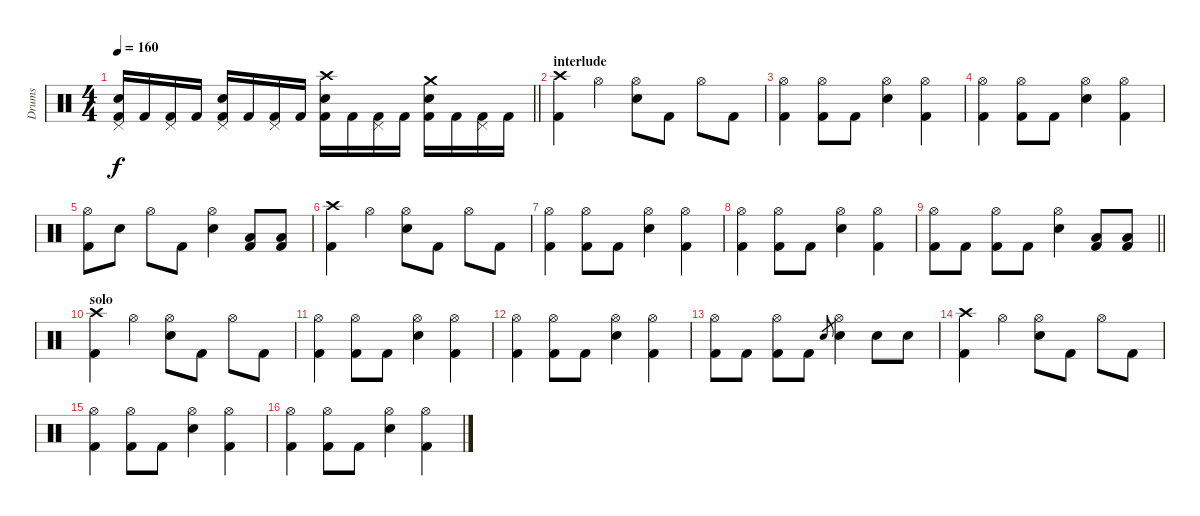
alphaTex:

\track ("Drums" "Drums") {instrument percussion}
\staff {score}
\articulation defaults
\ts (4 4)
\tempo 160
\clef neutral
\barLineRight lightlight
\ks c
("Pedal Hi-Hat (hit)" "Snare (hit) 2" "Kick (hit) 2").16{dy f} "Kick (hit) 2".16 ("Pedal Hi-Hat (hit)" "Kick (hit) 2").16 "Kick (hit) 2".16 ("Pedal Hi-Hat (hit)" "Snare (hit) 2" "Kick (hit) 2").16 "Kick (hit) 2".16 ("Pedal Hi-Hat (hit)" "Kick (hit) 2").16 "Kick (hit) 2".16 ("Crash high (hit)" "Snare (hit) 2" "Kick (hit) 2").16 "Kick (hit) 2".16 ("Pedal Hi-Hat (hit)" "Kick (hit) 2").16 "Kick (hit) 2".16 ("Crash medium (hit)" "Snare (hit) 2" "Kick (hit) 2").16 "Kick (hit) 2".16 ("Pedal Hi-Hat (hit)" "Kick (hit) 2").16 "Kick (hit) 2".16 |
\section ("" "interlude")
("Crash high (hit)" "Kick (hit) 2").4 "Hi-Hat (open)".4 ("Hi-Hat (open)" "Snare (hit) 2").8 "Kick (hit) 2".8 "Hi-Hat (open)".8 "Kick (hit) 2".8 |
("Hi-Hat (open)" "Kick (hit) 2").4 ("Hi-Hat (open)" "Kick (hit) 2").8 "Kick (hit) 2".8 ("Hi-Hat (open)" "Snare (hit) 2").4 ("Hi-Hat (open)" "Kick (hit) 2").4 |
("Hi-Hat (open)" "Kick (hit) 2").4 ("Hi-Hat (open)" "Kick (hit) 2").8 "Kick (hit) 2".8 ("Hi-Hat (open)" "Snare (hit) 2").4 ("Hi-Hat (open)" "Kick (hit) 2").4 |
("Hi-Hat (open)" "Kick (hit) 2").8 "Snare (hit) 2".8 "Hi-Hat (open)".8 "Kick (hit) 2".8 ("Hi-Hat (open)" "Snare (hit) 2").4 ("Low Tom (hit)" "Kick (hit) 2").8 ("Low Tom (hit)" "Kick (hit) 2").8 |
("Crash high (hit)" "Kick (hit) 2").4 "Hi-Hat (open)".4 ("Hi-Hat (open)" "Snare (hit) 2").8 "Kick (hit) 2".8 "Hi-Hat (open)".8 "Kick (hit) 2".8 |
("Hi-Hat (open)" "Kick (hit) 2").4 ("Hi-Hat (open)" "Kick (hit) 2").8 "Kick (hit) 2".8 ("Hi-Hat (open)" "Snare (hit) 2").4 ("Hi-Hat (open)" "Kick (hit) 2").4 |
("Hi-Hat (open)" "Kick (hit) 2").4 ("Hi-Hat (open)" "Kick (hit) 2").8 "Kick (hit) 2".8 ("Hi-Hat (open)" "Snare (hit) 2").4 ("Hi-Hat (open)" "Kick (hit) 2").4 |
\barLineRight lightlight
("Hi-Hat (open)" "Kick (hit) 2").8 "Kick (hit) 2".8 ("Hi-Hat (open)" "Kick (hit) 2").8 "Kick (hit) 2".8 ("Hi-Hat (open)" "Snare (hit) 2").4 ("Low Tom (hit)" "Kick (hit) 2").8 ("Low Tom (hit)" "Kick (hit) 2").8 |
\section ("" "solo")
("Crash high (hit)" "Kick (hit) 2").4 "Hi-Hat (open)".4 ("Hi-Hat (open)" "Snare (hit) 2").8 "Kick (hit) 2".8 "Hi-Hat (open)".8 "Kick (hit) 2".8 |
("Hi-Hat (open)" "Kick (hit) 2").4 ("Hi-Hat (open)" "Kick (hit) 2").8 "Kick (hit) 2".8 ("Hi-Hat (open)" "Snare (hit) 2").4 ("Hi-Hat (open)" "Kick (hit) 2").4 |
("Hi-Hat (open)" "Kick (hit) 2").4 ("Hi-Hat (open)" "Kick (hit) 2").8 "Kick (hit) 2".8 ("Hi-Hat (open)" "Snare (hit) 2").4 ("Hi-Hat (open)" "Kick (hit) 2").4 |
("Hi-Hat (open)" "Kick (hit) 2").8 "Kick (hit) 2".8 ("Hi-Hat (open)" "Kick (hit) 2").8 "Kick (hit) 2".8 "Snare (hit) 2".8{gr} ("Hi-Hat (open)" "Snare (hit) 2").4 "Snare (hit) 2".8 "Snare (hit) 2".8 |
("Crash high (hit)" "Kick (hit) 2").4 "Hi-Hat (open)".4 ("Hi-Hat (open)" "Snare (hit) 2").8 "Kick (hit) 2".8 "Hi-Hat (open)".8 "Kick (hit) 2".8 |
("Hi-Hat (open)" "Kick (hit) 2").4 ("Hi-Hat (open)" "Kick (hit) 2").8 "Kick (hit) 2".8 ("Hi-Hat (open)" "Snare (hit) 2").4 ("Hi-Hat (open)" "Kick (hit) 2").4 |
("Hi-Hat (open)" "Kick (hit) 2").4 ("Hi-Hat (open)" "Kick (hit) 2").8 "Kick (hit) 2".8 ("Hi-Hat (open)" "Snare (hit) 2").4 ("Hi-Hat (open)" "Kick (hit) 2").4
